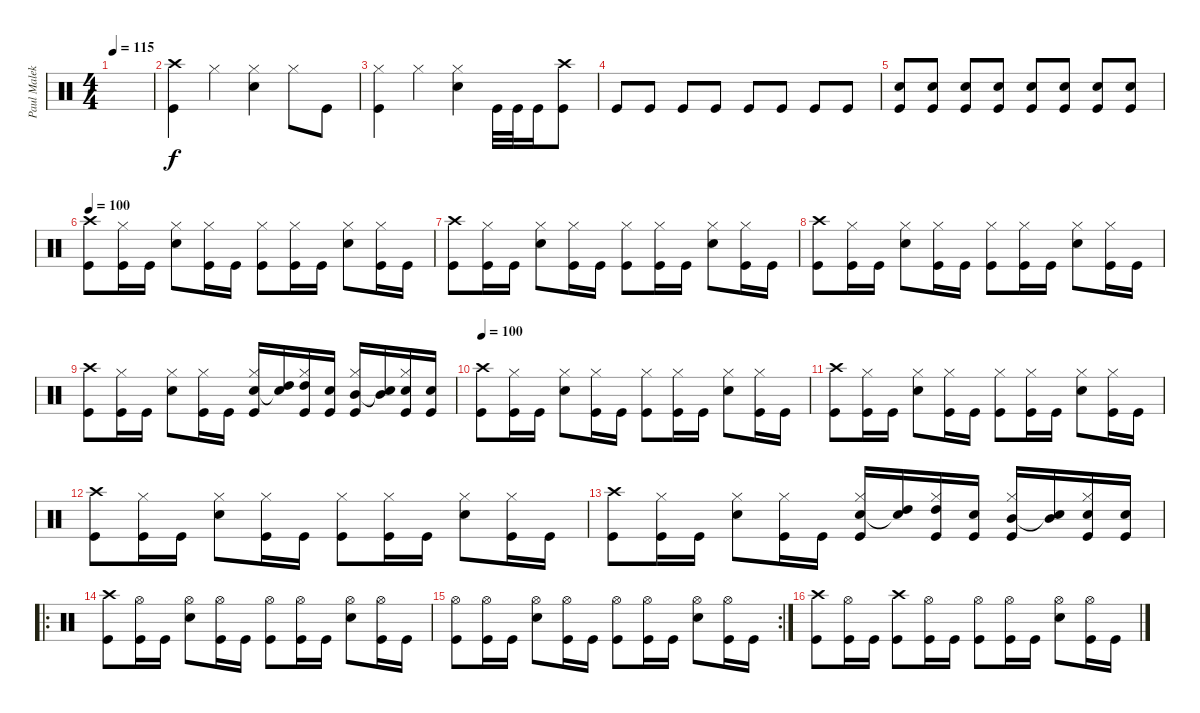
\track ("Paul Malek" "Paul Malek") {instrument percussion}
\staff {score}
\articulation defaults
\ts (4 4)
\tempo 115
\clef neutral
\ks c
|
("Crash high (hit)" "Kick (hit)").4 "Hi-Hat (closed)".4 ("Hi-Hat (closed)" "Snare (hit) 2").4 "Hi-Hat (closed)".8 "Kick (hit)".8 |
("Hi-Hat (closed)" "Kick (hit)").4 "Hi-Hat (closed)".4 ("Hi-Hat (closed)" "Snare (hit) 2").4 "Kick (hit)".32 "Kick (hit)".32 "Kick (hit)".16 ("Crash high (hit)" "Kick (hit)").8 |
"Kick (hit)".8 "Kick (hit)".8 "Kick (hit)".8 "Kick (hit)".8 "Kick (hit)".8 "Kick (hit)".8 "Kick (hit)".8 "Kick (hit)".8 |
("Snare (hit) 2" "Kick (hit)").8 ("Snare (hit) 2" "Kick (hit)").8 ("Snare (hit) 2" "Kick (hit)").8 ("Snare (hit) 2" "Kick (hit)").8 ("Snare (hit) 2" "Kick (hit)").8 ("Snare (hit) 2" "Kick (hit)").8 ("Snare (hit) 2" "Kick (hit)").8 ("Snare (hit) 2" "Kick (hit)").8 |
\tempo 100
("Crash high (hit)" "Kick (hit)").8 ("Hi-Hat (closed)" "Kick (hit)").16 "Kick (hit)".16 ("Hi-Hat (closed)" "Snare (hit) 2").8 ("Hi-Hat (closed)" "Kick (hit)").16 "Kick (hit)".16 ("Hi-Hat (closed)" "Kick (hit)").8 ("Hi-Hat (closed)" "Kick (hit)").16 "Kick (hit)".16 ("Hi-Hat (closed)" "Snare (hit) 2").8 ("Hi-Hat (closed)" "Kick (hit)").16 "Kick (hit)".16 |
("Crash high (hit)" "Kick (hit)").8 ("Hi-Hat (closed)" "Kick (hit)").16 "Kick (hit)".16 ("Hi-Hat (closed)" "Snare (hit) 2").8 ("Hi-Hat (closed)" "Kick (hit)").16 "Kick (hit)".16 ("Hi-Hat (closed)" "Kick (hit)").8 ("Hi-Hat (closed)" "Kick (hit)").16 "Kick (hit)".16 ("Hi-Hat (closed)" "Snare (hit) 2").8 ("Hi-Hat (closed)" "Kick (hit)").16 "Kick (hit)".16 |
("Crash high (hit)" "Kick (hit)").8 ("Hi-Hat (closed)" "Kick (hit)").16 "Kick (hit)".16 ("Hi-Hat (closed)" "Snare (hit) 2").8 ("Hi-Hat (closed)" "Kick (hit)").16 "Kick (hit)".16 ("Hi-Hat (closed)" "Kick (hit)").8 ("Hi-Hat (closed)" "Kick (hit)").16 "Kick (hit)".16 ("Hi-Hat (closed)" "Snare (hit) 2").8 ("Hi-Hat (closed)" "Kick (hit)").16 "Kick (hit)".16 |
("Crash high (hit)" "Kick (hit)").8 ("Hi-Hat (closed)" "Kick (hit)").16 "Kick (hit)".16 ("Hi-Hat (closed)" "Snare (hit) 2").8 ("Hi-Hat (closed)" "Kick (hit)").16 "Kick (hit)".16 ("Hi-Hat (closed)" "Snare (hit) 2" "Kick (hit)").16 ("High Tom (hit)" "Snare (hit)"{t}).16 ("Hi-Hat (closed)" "High Tom (hit)" "Kick (hit)").16 ("Snare (hit) 2" "Kick (hit)").16 ("Hi-Hat (closed)" "Mid Tom (hit)" "Kick (hit)").16 ("Mid Tom (hit)" "Snare (hit)"{t}).16 ("Hi-Hat (closed)" "Snare (hit) 2" "Kick (hit)").16 ("Snare (hit) 2" "Kick (hit)").16 |
\tempo 100
("Crash high (hit)" "Kick (hit)").8 ("Hi-Hat (closed)" "Kick (hit)").16 "Kick (hit)".16 ("Hi-Hat (closed)" "Snare (hit) 2").8 ("Hi-Hat (closed)" "Kick (hit)").16 "Kick (hit)".16 ("Hi-Hat (closed)" "Kick (hit)").8 ("Hi-Hat (closed)" "Kick (hit)").16 "Kick (hit)".16 ("Hi-Hat (closed)" "Snare (hit) 2").8 ("Hi-Hat (closed)" "Kick (hit)").16 "Kick (hit)".16 |
("Crash high (hit)" "Kick (hit)").8 ("Hi-Hat (closed)" "Kick (hit)").16 "Kick (hit)".16 ("Hi-Hat (closed)" "Snare (hit) 2").8 ("Hi-Hat (closed)" "Kick (hit)").16 "Kick (hit)".16 ("Hi-Hat (closed)" "Kick (hit)").8 ("Hi-Hat (closed)" "Kick (hit)").16 "Kick (hit)".16 ("Hi-Hat (closed)" "Snare (hit) 2").8 ("Hi-Hat (closed)" "Kick (hit)").16 "Kick (hit)".16 |
("Crash high (hit)" "Kick (hit)").8 ("Hi-Hat (closed)" "Kick (hit)").16 "Kick (hit)".16 ("Hi-Hat (closed)" "Snare (hit) 2").8 ("Hi-Hat (closed)" "Kick (hit)").16 "Kick (hit)".16 ("Hi-Hat (closed)" "Kick (hit)").8 ("Hi-Hat (closed)" "Kick (hit)").16 "Kick (hit)".16 ("Hi-Hat (closed)" "Snare (hit) 2").8 ("Hi-Hat (closed)" "Kick (hit)").16 "Kick (hit)".16 |
("Crash high (hit)" "Kick (hit)").8 ("Hi-Hat (closed)" "Kick (hit)").16 "Kick (hit)".16 ("Hi-Hat (closed)" "Snare (hit) 2").8 ("Hi-Hat (closed)" "Kick (hit)").16 "Kick (hit)".16 ("Hi-Hat (closed)" "Snare (hit) 2" "Kick (hit)").16 ("High Tom (hit)" "Snare (hit)"{t}).16 ("Hi-Hat (closed)" "High Tom (hit)" "Kick (hit)").16 ("Snare (hit) 2" "Kick (hit)").16 ("Hi-Hat (closed)" "Mid Tom (hit)" "Kick (hit)").16 ("Mid Tom (hit)" "Snare (hit)"{t}).16 ("Hi-Hat (closed)" "Snare (hit) 2" "Kick (hit)").16 ("Snare (hit) 2" "Kick (hit)").16 |
\ro
("Crash high (hit)" "Kick (hit)").8 ("Hi-Hat (open)" "Kick (hit)").16 "Kick (hit)".16 ("Hi-Hat (open)" "Snare (hit) 2").8 ("Hi-Hat (open)" "Kick (hit)").16 "Kick (hit)".16 ("Hi-Hat (open)" "Kick (hit)").8 ("Hi-Hat (open)" "Kick (hit)").16 "Kick (hit)".16 ("Hi-Hat (open)" "Snare (hit) 2").8 ("Hi-Hat (open)" "Kick (hit)").16 "Kick (hit)".16 |
\rc 2
("Hi-Hat (open)" "Kick (hit)").8 ("Hi-Hat (open)" "Kick (hit)").16 "Kick (hit)".16 ("Hi-Hat (open)" "Snare (hit) 2").8 ("Hi-Hat (open)" "Kick (hit)").16 "Kick (hit)".16 ("Hi-Hat (open)" "Kick (hit)").8 ("Hi-Hat (open)" "Kick (hit)").16 "Kick (hit)".16 ("Hi-Hat (open)" "Snare (hit) 2").8 ("Hi-Hat (open)" "Kick (hit)").16 "Kick (hit)".16 |
("Crash high (hit)" "Kick (hit)").8 ("Hi-Hat (open)" "Kick (hit)").16 "Kick (hit)".16 ("Crash high (hit)" "Kick (hit)").8 ("Hi-Hat (open)" "Kick (hit)").16 "Kick (hit)".16 ("Hi-Hat (open)" "Kick (hit)").8 ("Hi-Hat (open)" "Kick (hit)").16 "Kick (hit)".16 ("Hi-Hat (open)" "Snare (hit) 2").8 ("Hi-Hat (open)" "Kick (hit)").16 "Kick (hit)".16
